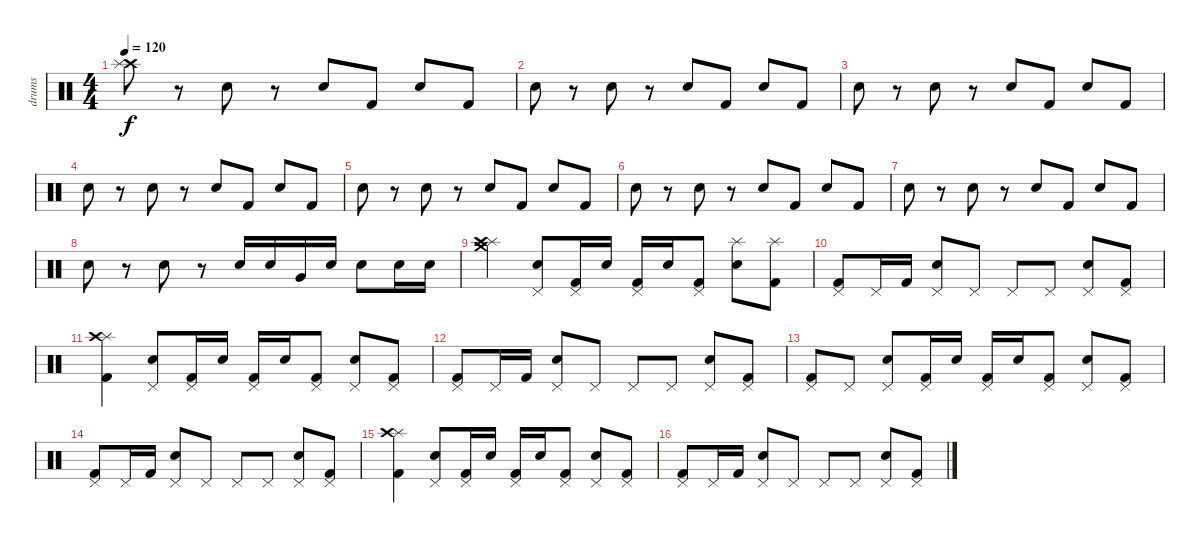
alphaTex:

\track ("drums" "drums") {instrument percussion}
\staff {score}
\articulation defaults
\ts (4 4)
\tempo 120
\clef neutral
\ks c
("Crash high (hit)" "Splash (hit)").8{dy f} r.8 "Snare (hit) 2".8 r.8 "Snare (hit) 2".8 "Kick (hit) 2".8 "Snare (hit) 2".8 "Kick (hit) 2".8 |
"Snare (hit) 2".8 r.8 "Snare (hit) 2".8 r.8 "Snare (hit) 2".8 "Kick (hit) 2".8 "Snare (hit) 2".8 "Kick (hit) 2".8 |
"Snare (hit) 2".8 r.8 "Snare (hit) 2".8 r.8 "Snare (hit) 2".8 "Kick (hit) 2".8 "Snare (hit) 2".8 "Kick (hit) 2".8 |
"Snare (hit) 2".8 r.8 "Snare (hit) 2".8 r.8 "Snare (hit) 2".8 "Kick (hit) 2".8 "Snare (hit) 2".8 "Kick (hit) 2".8 |
"Snare (hit) 2".8 r.8 "Snare (hit) 2".8 r.8 "Snare (hit) 2".8 "Kick (hit) 2".8 "Snare (hit) 2".8 "Kick (hit) 2".8 |
"Snare (hit) 2".8 r.8 "Snare (hit) 2".8 r.8 "Snare (hit) 2".8 "Kick (hit) 2".8 "Snare (hit) 2".8 "Kick (hit) 2".8 |
"Snare (hit) 2".8 r.8 "Snare (hit) 2".8 r.8 "Snare (hit) 2".8 "Kick (hit) 2".8 "Snare (hit) 2".8 "Kick (hit) 2".8 |
"Snare (hit) 2".8 r.8 "Snare (hit) 2".8 r.8 "Electric Snare (hit)".16 "Electric Snare (hit)".16 "Very Low Tom (hit)".16 "Electric Snare (hit)".16 "Electric Snare (hit)".8 "Electric Snare (hit)".16 "Electric Snare (hit)".16 |
("Splash (hit)" "Crash high (hit)" "Crash medium (hit)").4 ("Snare (hit) 2" "Pedal Hi-Hat (hit)").8 ("Kick (hit) 2" "Pedal Hi-Hat (hit)").16{volume 10} "Snare (hit) 2".16 ("Kick (hit) 2" "Pedal Hi-Hat (hit)").16 "Snare (hit) 2".16 ("Kick (hit) 2" "Pedal Hi-Hat (hit)").8 ("Snare (hit) 2" "Splash (hit)").8{volume 16} ("Kick (hit) 2" "Splash (hit)").8 |
("Kick (hit) 2" "Pedal Hi-Hat (hit)").8 "Pedal Hi-Hat (hit)".16 "Kick (hit) 2".16 ("Snare (hit) 2" "Pedal Hi-Hat (hit)").8 "Pedal Hi-Hat (hit)".8 "Pedal Hi-Hat (hit)".8 "Pedal Hi-Hat (hit)".8 ("Snare (hit) 2" "Pedal Hi-Hat (hit)").8 ("Pedal Hi-Hat (hit)" "Kick (hit) 2").8 |
("Splash (hit)" "Crash high (hit)" "Kick (hit) 2").4 ("Snare (hit) 2" "Pedal Hi-Hat (hit)").8 ("Kick (hit) 2" "Pedal Hi-Hat (hit)").16{volume 10} "Snare (hit) 2".16 ("Kick (hit) 2" "Pedal Hi-Hat (hit)").16 "Snare (hit) 2".16 ("Kick (hit) 2" "Pedal Hi-Hat (hit)").8 ("Snare (hit) 2" "Pedal Hi-Hat (hit)").8{volume 16} ("Kick (hit) 2" "Pedal Hi-Hat (hit)").8 |
("Kick (hit) 2" "Pedal Hi-Hat (hit)").8 "Pedal Hi-Hat (hit)".16 "Kick (hit) 2".16 ("Snare (hit) 2" "Pedal Hi-Hat (hit)").8 "Pedal Hi-Hat (hit)".8 "Pedal Hi-Hat (hit)".8 "Pedal Hi-Hat (hit)".8 ("Snare (hit) 2" "Pedal Hi-Hat (hit)").8 ("Pedal Hi-Hat (hit)" "Kick (hit) 2").8 |
("Pedal Hi-Hat (hit)" "Kick (hit) 2").8 "Pedal Hi-Hat (hit)".8 ("Snare (hit) 2" "Pedal Hi-Hat (hit)").8 ("Kick (hit) 2" "Pedal Hi-Hat (hit)").16 "Snare (hit) 2".16 ("Kick (hit) 2" "Pedal Hi-Hat (hit)").16 "Snare (hit) 2".16{volume 16} ("Kick (hit) 2" "Pedal Hi-Hat (hit)").8 ("Snare (hit) 2" "Pedal Hi-Hat (hit)").8 ("Kick (hit) 2" "Pedal Hi-Hat (hit)").8 |
("Kick (hit) 2" "Pedal Hi-Hat (hit)").8 "Pedal Hi-Hat (hit)".16 "Kick (hit) 2".16 ("Snare (hit) 2" "Pedal Hi-Hat (hit)").8 "Pedal Hi-Hat (hit)".8 "Pedal Hi-Hat (hit)".8 "Pedal Hi-Hat (hit)".8 ("Snare (hit) 2" "Pedal Hi-Hat (hit)").8 ("Pedal Hi-Hat (hit)" "Kick (hit) 2").8 |
("Splash (hit)" "Crash high (hit)" "Kick (hit) 2").4 ("Snare (hit) 2" "Pedal Hi-Hat (hit)").8 ("Kick (hit) 2" "Pedal Hi-Hat (hit)").16{volume 10} "Snare (hit) 2".16 ("Kick (hit) 2" "Pedal Hi-Hat (hit)").16 "Snare (hit) 2".16 ("Kick (hit) 2" "Pedal Hi-Hat (hit)").8 ("Snare (hit) 2" "Pedal Hi-Hat (hit)").8{volume 16} ("Kick (hit) 2" "Pedal Hi-Hat (hit)").8 |
("Kick (hit) 2" "Pedal Hi-Hat (hit)").8 "Pedal Hi-Hat (hit)".16 "Kick (hit) 2".16 ("Snare (hit) 2" "Pedal Hi-Hat (hit)").8 "Pedal Hi-Hat (hit)".8 "Pedal Hi-Hat (hit)".8 "Pedal Hi-Hat (hit)".8 ("Snare (hit) 2" "Pedal Hi-Hat (hit)").8 ("Pedal Hi-Hat (hit)" "Kick (hit) 2").8
